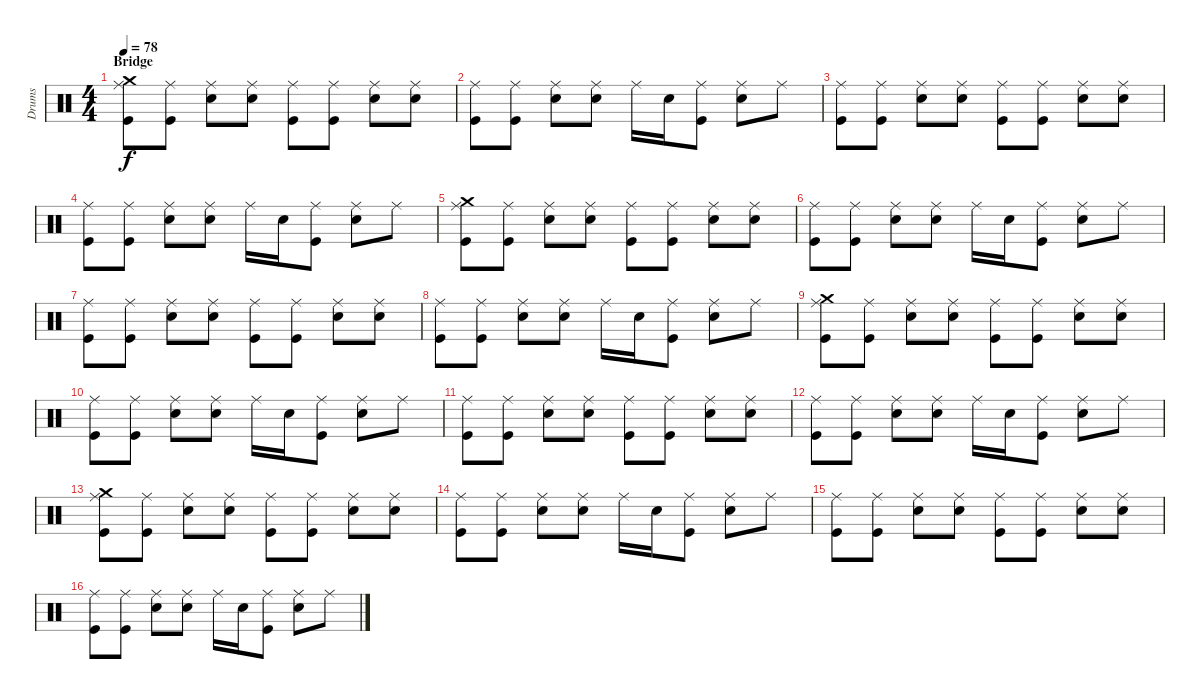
\track ("Drums" "Drums") {instrument percussion}
\staff {score}
\articulation defaults
\ts (4 4)
\section ("" "Bridge")
\tempo 78
\clef neutral
\ks c
("Ride (middle)" "Crash medium (hit)" "Kick (hit)").8{dy f} ("Ride (middle)" "Kick (hit)").8 ("Ride (middle)" "Snare (hit) 2").8 ("Ride (middle)" "Snare (hit) 2").8 ("Ride (middle)" "Kick (hit)").8 ("Ride (middle)" "Kick (hit)").8 ("Ride (middle)" "Snare (hit) 2").8 ("Ride (middle)" "Snare (hit) 2").8 |
("Ride (middle)" "Kick (hit)").8 ("Ride (middle)" "Kick (hit)").8 ("Ride (middle)" "Snare (hit) 2").8 ("Ride (middle)" "Snare (hit) 2").8 "Ride (middle)".16 "Snare (hit) 2".16 ("Ride (middle)" "Kick (hit)").8 ("Ride (middle)" "Snare (hit) 2").8 "Ride (middle)".8 |
("Ride (middle)" "Kick (hit)").8 ("Ride (middle)" "Kick (hit)").8 ("Ride (middle)" "Snare (hit) 2").8 ("Ride (middle)" "Snare (hit) 2").8 ("Ride (middle)" "Kick (hit)").8 ("Ride (middle)" "Kick (hit)").8 ("Ride (middle)" "Snare (hit) 2").8 ("Ride (middle)" "Snare (hit) 2").8 |
("Ride (middle)" "Kick (hit)").8 ("Ride (middle)" "Kick (hit)").8 ("Ride (middle)" "Snare (hit) 2").8 ("Ride (middle)" "Snare (hit) 2").8 "Ride (middle)".16 "Snare (hit) 2".16 ("Ride (middle)" "Kick (hit)").8 ("Ride (middle)" "Snare (hit) 2").8 "Ride (middle)".8 |
("Ride (middle)" "Crash medium (hit)" "Kick (hit)").8 ("Ride (middle)" "Kick (hit)").8 ("Ride (middle)" "Snare (hit) 2").8 ("Ride (middle)" "Snare (hit) 2").8 ("Ride (middle)" "Kick (hit)").8 ("Ride (middle)" "Kick (hit)").8 ("Ride (middle)" "Snare (hit) 2").8 ("Ride (middle)" "Snare (hit) 2").8 |
("Ride (middle)" "Kick (hit)").8 ("Ride (middle)" "Kick (hit)").8 ("Ride (middle)" "Snare (hit) 2").8 ("Ride (middle)" "Snare (hit) 2").8 "Ride (middle)".16 "Snare (hit) 2".16 ("Ride (middle)" "Kick (hit)").8 ("Ride (middle)" "Snare (hit) 2").8 "Ride (middle)".8 |
("Ride (middle)" "Kick (hit)").8 ("Ride (middle)" "Kick (hit)").8 ("Ride (middle)" "Snare (hit) 2").8 ("Ride (middle)" "Snare (hit) 2").8 ("Ride (middle)" "Kick (hit)").8 ("Ride (middle)" "Kick (hit)").8 ("Ride (middle)" "Snare (hit) 2").8 ("Ride (middle)" "Snare (hit) 2").8 |
("Ride (middle)" "Kick (hit)").8 ("Ride (middle)" "Kick (hit)").8 ("Ride (middle)" "Snare (hit) 2").8 ("Ride (middle)" "Snare (hit) 2").8 "Ride (middle)".16 "Snare (hit) 2".16 ("Ride (middle)" "Kick (hit)").8 ("Ride (middle)" "Snare (hit) 2").8 "Ride (middle)".8 |
("Ride (middle)" "Crash medium (hit)" "Kick (hit)").8 ("Ride (middle)" "Kick (hit)").8 ("Ride (middle)" "Snare (hit) 2").8 ("Ride (middle)" "Snare (hit) 2").8 ("Ride (middle)" "Kick (hit)").8 ("Ride (middle)" "Kick (hit)").8 ("Ride (middle)" "Snare (hit) 2").8 ("Ride (middle)" "Snare (hit) 2").8 |
("Ride (middle)" "Kick (hit)").8 ("Ride (middle)" "Kick (hit)").8 ("Ride (middle)" "Snare (hit) 2").8 ("Ride (middle)" "Snare (hit) 2").8 "Ride (middle)".16 "Snare (hit) 2".16 ("Ride (middle)" "Kick (hit)").8 ("Ride (middle)" "Snare (hit) 2").8 "Ride (middle)".8 |
("Ride (middle)" "Kick (hit)").8 ("Ride (middle)" "Kick (hit)").8 ("Ride (middle)" "Snare (hit) 2").8 ("Ride (middle)" "Snare (hit) 2").8 ("Ride (middle)" "Kick (hit)").8 ("Ride (middle)" "Kick (hit)").8 ("Ride (middle)" "Snare (hit) 2").8 ("Ride (middle)" "Snare (hit) 2").8 |
("Ride (middle)" "Kick (hit)").8 ("Ride (middle)" "Kick (hit)").8 ("Ride (middle)" "Snare (hit) 2").8 ("Ride (middle)" "Snare (hit) 2").8 "Ride (middle)".16 "Snare (hit) 2".16 ("Ride (middle)" "Kick (hit)").8 ("Ride (middle)" "Snare (hit) 2").8 "Ride (middle)".8 |
("Ride (middle)" "Crash medium (hit)" "Kick (hit)").8 ("Ride (middle)" "Kick (hit)").8 ("Ride (middle)" "Snare (hit) 2").8 ("Ride (middle)" "Snare (hit) 2").8 ("Ride (middle)" "Kick (hit)").8 ("Ride (middle)" "Kick (hit)").8 ("Ride (middle)" "Snare (hit) 2").8 ("Ride (middle)" "Snare (hit) 2").8 |
("Ride (middle)" "Kick (hit)").8 ("Ride (middle)" "Kick (hit)").8 ("Ride (middle)" "Snare (hit) 2").8 ("Ride (middle)" "Snare (hit) 2").8 "Ride (middle)".16 "Snare (hit) 2".16 ("Ride (middle)" "Kick (hit)").8 ("Ride (middle)" "Snare (hit) 2").8 "Ride (middle)".8 |
("Ride (middle)" "Kick (hit)").8 ("Ride (middle)" "Kick (hit)").8 ("Ride (middle)" "Snare (hit) 2").8 ("Ride (middle)" "Snare (hit) 2").8 ("Ride (middle)" "Kick (hit)").8 ("Ride (middle)" "Kick (hit)").8 ("Ride (middle)" "Snare (hit) 2").8 ("Ride (middle)" "Snare (hit) 2").8 |
("Ride (middle)" "Kick (hit)").8 ("Ride (middle)" "Kick (hit)").8 ("Ride (middle)" "Snare (hit) 2").8 ("Ride (middle)" "Snare (hit) 2").8 "Ride (middle)".16 "Snare (hit) 2".16 ("Ride (middle)" "Kick (hit)").8 ("Ride (middle)" "Snare (hit) 2").8 "Ride (middle)".8
